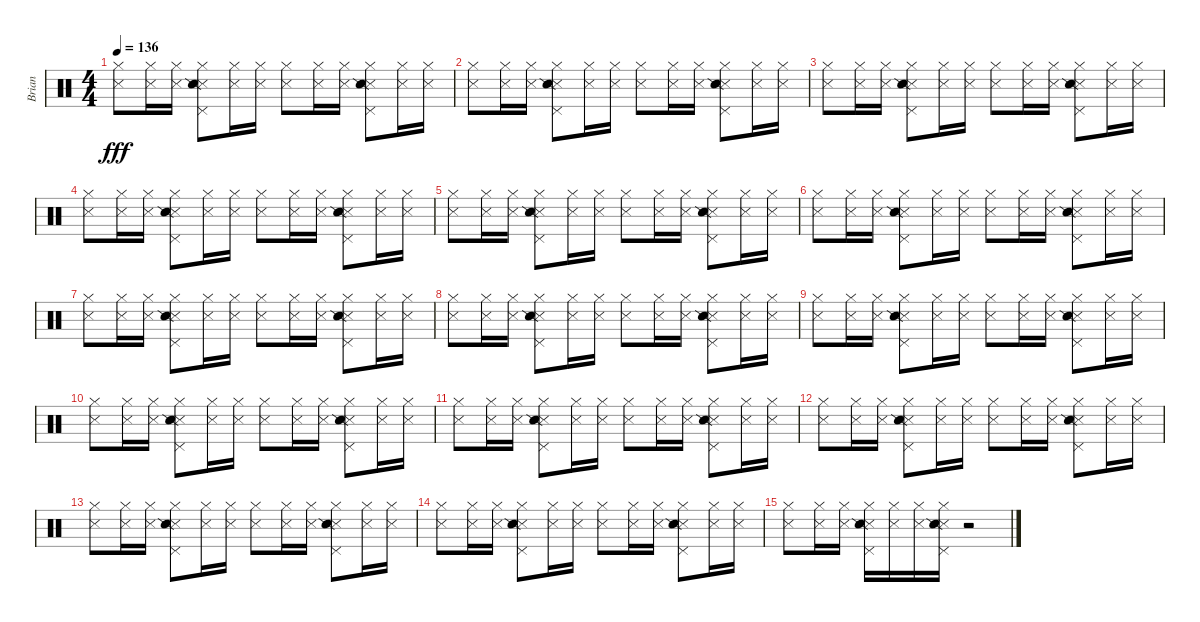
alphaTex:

\track ("Brian" "Brian") {instrument percussion}
\staff {score}
\articulation defaults
\ts (4 4)
\tempo 136
\clef neutral
\ks c
("Hi-Hat (closed)" "Metronome (hit)").8{dy fff} ("Hi-Hat (closed)" "Metronome (hit)").16 ("Hi-Hat (closed)" "Metronome (hit)").16 ("Pedal Hi-Hat (hit)" "Snare (side stick) 3" "Hi-Hat (closed)" "Snare (side stick) 2").8 ("Hi-Hat (closed)" "Metronome (hit)").16 ("Hi-Hat (closed)" "Metronome (hit)").16 ("Hi-Hat (closed)" "Metronome (hit)").8 ("Hi-Hat (closed)" "Metronome (hit)").16 ("Hi-Hat (closed)" "Metronome (hit)").16 ("Pedal Hi-Hat (hit)" "Snare (side stick) 3" "Hi-Hat (closed)" "Snare (side stick) 2").8 ("Hi-Hat (closed)" "Metronome (hit)").16 ("Hi-Hat (closed)" "Metronome (hit)").16 |
("Hi-Hat (closed)" "Metronome (hit)").8 ("Hi-Hat (closed)" "Metronome (hit)").16 ("Hi-Hat (closed)" "Metronome (hit)").16 ("Pedal Hi-Hat (hit)" "Snare (side stick) 3" "Hi-Hat (closed)" "Snare (side stick) 2").8 ("Hi-Hat (closed)" "Metronome (hit)").16 ("Hi-Hat (closed)" "Metronome (hit)").16 ("Hi-Hat (closed)" "Metronome (hit)").8 ("Hi-Hat (closed)" "Metronome (hit)").16 ("Hi-Hat (closed)" "Metronome (hit)").16 ("Pedal Hi-Hat (hit)" "Snare (side stick) 3" "Hi-Hat (closed)" "Snare (side stick) 2").8 ("Hi-Hat (closed)" "Metronome (hit)").16 ("Hi-Hat (closed)" "Metronome (hit)").16 |
("Hi-Hat (closed)" "Metronome (hit)").8 ("Hi-Hat (closed)" "Metronome (hit)").16 ("Hi-Hat (closed)" "Metronome (hit)").16 ("Pedal Hi-Hat (hit)" "Snare (side stick) 3" "Hi-Hat (closed)" "Snare (side stick) 2").8 ("Hi-Hat (closed)" "Metronome (hit)").16 ("Hi-Hat (closed)" "Metronome (hit)").16 ("Hi-Hat (closed)" "Metronome (hit)").8 ("Hi-Hat (closed)" "Metronome (hit)").16 ("Hi-Hat (closed)" "Metronome (hit)").16 ("Pedal Hi-Hat (hit)" "Snare (side stick) 3" "Hi-Hat (closed)" "Snare (side stick) 2").8 ("Hi-Hat (closed)" "Metronome (hit)").16 ("Hi-Hat (closed)" "Metronome (hit)").16 |
("Hi-Hat (closed)" "Metronome (hit)").8 ("Hi-Hat (closed)" "Metronome (hit)").16 ("Hi-Hat (closed)" "Metronome (hit)").16 ("Pedal Hi-Hat (hit)" "Snare (side stick) 3" "Hi-Hat (closed)" "Snare (side stick) 2").8 ("Hi-Hat (closed)" "Metronome (hit)").16 ("Hi-Hat (closed)" "Metronome (hit)").16 ("Hi-Hat (closed)" "Metronome (hit)").8 ("Hi-Hat (closed)" "Metronome (hit)").16 ("Hi-Hat (closed)" "Metronome (hit)").16 ("Pedal Hi-Hat (hit)" "Snare (side stick) 3" "Hi-Hat (closed)" "Snare (side stick) 2").8 ("Hi-Hat (closed)" "Metronome (hit)").16 ("Hi-Hat (closed)" "Metronome (hit)").16 |
("Hi-Hat (closed)" "Metronome (hit)").8 ("Hi-Hat (closed)" "Metronome (hit)").16 ("Hi-Hat (closed)" "Metronome (hit)").16 ("Pedal Hi-Hat (hit)" "Snare (side stick) 3" "Hi-Hat (closed)" "Snare (side stick) 2").8 ("Hi-Hat (closed)" "Metronome (hit)").16 ("Hi-Hat (closed)" "Metronome (hit)").16 ("Hi-Hat (closed)" "Metronome (hit)").8 ("Hi-Hat (closed)" "Metronome (hit)").16 ("Hi-Hat (closed)" "Metronome (hit)").16 ("Pedal Hi-Hat (hit)" "Snare (side stick) 3" "Hi-Hat (closed)" "Snare (side stick) 2").8 ("Hi-Hat (closed)" "Metronome (hit)").16 ("Hi-Hat (closed)" "Metronome (hit)").16 |
("Hi-Hat (closed)" "Metronome (hit)").8 ("Hi-Hat (closed)" "Metronome (hit)").16 ("Hi-Hat (closed)" "Metronome (hit)").16 ("Pedal Hi-Hat (hit)" "Snare (side stick) 3" "Hi-Hat (closed)" "Snare (side stick) 2").8 ("Hi-Hat (closed)" "Metronome (hit)").16 ("Hi-Hat (closed)" "Metronome (hit)").16 ("Hi-Hat (closed)" "Metronome (hit)").8 ("Hi-Hat (closed)" "Metronome (hit)").16 ("Hi-Hat (closed)" "Metronome (hit)").16 ("Pedal Hi-Hat (hit)" "Snare (side stick) 3" "Hi-Hat (closed)" "Snare (side stick) 2").8 ("Hi-Hat (closed)" "Metronome (hit)").16 ("Hi-Hat (closed)" "Metronome (hit)").16 |
("Hi-Hat (closed)" "Metronome (hit)").8 ("Hi-Hat (closed)" "Metronome (hit)").16 ("Hi-Hat (closed)" "Metronome (hit)").16 ("Pedal Hi-Hat (hit)" "Snare (side stick) 3" "Hi-Hat (closed)" "Snare (side stick) 2").8 ("Hi-Hat (closed)" "Metronome (hit)").16 ("Hi-Hat (closed)" "Metronome (hit)").16 ("Hi-Hat (closed)" "Metronome (hit)").8 ("Hi-Hat (closed)" "Metronome (hit)").16 ("Hi-Hat (closed)" "Metronome (hit)").16 ("Pedal Hi-Hat (hit)" "Snare (side stick) 3" "Hi-Hat (closed)" "Snare (side stick) 2").8 ("Hi-Hat (closed)" "Metronome (hit)").16 ("Hi-Hat (closed)" "Metronome (hit)").16 |
("Hi-Hat (closed)" "Metronome (hit)").8 ("Hi-Hat (closed)" "Metronome (hit)").16 ("Hi-Hat (closed)" "Metronome (hit)").16 ("Pedal Hi-Hat (hit)" "Snare (side stick) 3" "Hi-Hat (closed)" "Snare (side stick) 2").8 ("Hi-Hat (closed)" "Metronome (hit)").16 ("Hi-Hat (closed)" "Metronome (hit)").16 ("Hi-Hat (closed)" "Metronome (hit)").8 ("Hi-Hat (closed)" "Metronome (hit)").16 ("Hi-Hat (closed)" "Metronome (hit)").16 ("Pedal Hi-Hat (hit)" "Snare (side stick) 3" "Hi-Hat (closed)" "Snare (side stick) 2").8 ("Hi-Hat (closed)" "Metronome (hit)").16 ("Hi-Hat (closed)" "Metronome (hit)").16 |
("Hi-Hat (closed)" "Metronome (hit)").8 ("Hi-Hat (closed)" "Metronome (hit)").16 ("Hi-Hat (closed)" "Metronome (hit)").16 ("Pedal Hi-Hat (hit)" "Snare (side stick) 3" "Hi-Hat (closed)" "Snare (side stick) 2").8 ("Hi-Hat (closed)" "Metronome (hit)").16 ("Hi-Hat (closed)" "Metronome (hit)").16 ("Hi-Hat (closed)" "Metronome (hit)").8 ("Hi-Hat (closed)" "Metronome (hit)").16 ("Hi-Hat (closed)" "Metronome (hit)").16 ("Pedal Hi-Hat (hit)" "Snare (side stick) 3" "Hi-Hat (closed)" "Snare (side stick) 2").8 ("Hi-Hat (closed)" "Metronome (hit)").16 ("Hi-Hat (closed)" "Metronome (hit)").16 |
("Hi-Hat (closed)" "Metronome (hit)").8 ("Hi-Hat (closed)" "Metronome (hit)").16 ("Hi-Hat (closed)" "Metronome (hit)").16 ("Pedal Hi-Hat (hit)" "Snare (side stick) 3" "Hi-Hat (closed)" "Snare (side stick) 2").8 ("Hi-Hat (closed)" "Metronome (hit)").16 ("Hi-Hat (closed)" "Metronome (hit)").16 ("Hi-Hat (closed)" "Metronome (hit)").8 ("Hi-Hat (closed)" "Metronome (hit)").16 ("Hi-Hat (closed)" "Metronome (hit)").16 ("Pedal Hi-Hat (hit)" "Snare (side stick) 3" "Hi-Hat (closed)" "Snare (side stick) 2").8 ("Hi-Hat (closed)" "Metronome (hit)").16 ("Hi-Hat (closed)" "Metronome (hit)").16 |
("Hi-Hat (closed)" "Metronome (hit)").8 ("Hi-Hat (closed)" "Metronome (hit)").16 ("Hi-Hat (closed)" "Metronome (hit)").16 ("Pedal Hi-Hat (hit)" "Snare (side stick) 3" "Hi-Hat (closed)" "Snare (side stick) 2").8 ("Hi-Hat (closed)" "Metronome (hit)").16 ("Hi-Hat (closed)" "Metronome (hit)").16 ("Hi-Hat (closed)" "Metronome (hit)").8 ("Hi-Hat (closed)" "Metronome (hit)").16 ("Hi-Hat (closed)" "Metronome (hit)").16 ("Pedal Hi-Hat (hit)" "Snare (side stick) 3" "Hi-Hat (closed)" "Snare (side stick) 2").8 ("Hi-Hat (closed)" "Metronome (hit)").16 ("Hi-Hat (closed)" "Metronome (hit)").16 |
("Hi-Hat (closed)" "Metronome (hit)").8 ("Hi-Hat (closed)" "Metronome (hit)").16 ("Hi-Hat (closed)" "Metronome (hit)").16 ("Pedal Hi-Hat (hit)" "Snare (side stick) 3" "Hi-Hat (closed)" "Snare (side stick) 2").8 ("Hi-Hat (closed)" "Metronome (hit)").16 ("Hi-Hat (closed)" "Metronome (hit)").16 ("Hi-Hat (closed)" "Metronome (hit)").8 ("Hi-Hat (closed)" "Metronome (hit)").16 ("Hi-Hat (closed)" "Metronome (hit)").16 ("Pedal Hi-Hat (hit)" "Snare (side stick) 3" "Hi-Hat (closed)" "Snare (side stick) 2").8 ("Hi-Hat (closed)" "Metronome (hit)").16 ("Hi-Hat (closed)" "Metronome (hit)").16 |
("Hi-Hat (closed)" "Metronome (hit)").8 ("Hi-Hat (closed)" "Metronome (hit)").16 ("Hi-Hat (closed)" "Metronome (hit)").16 ("Pedal Hi-Hat (hit)" "Snare (side stick) 3" "Hi-Hat (closed)" "Snare (side stick) 2").8 ("Hi-Hat (closed)" "Metronome (hit)").16 ("Hi-Hat (closed)" "Metronome (hit)").16 ("Hi-Hat (closed)" "Metronome (hit)").8 ("Hi-Hat (closed)" "Metronome (hit)").16 ("Hi-Hat (closed)" "Metronome (hit)").16 ("Pedal Hi-Hat (hit)" "Snare (side stick) 3" "Hi-Hat (closed)" "Snare (side stick) 2").8 ("Hi-Hat (closed)" "Metronome (hit)").16 ("Hi-Hat (closed)" "Metronome (hit)").16 |
("Hi-Hat (closed)" "Metronome (hit)").8 ("Hi-Hat (closed)" "Metronome (hit)").16 ("Hi-Hat (closed)" "Metronome (hit)").16 ("Pedal Hi-Hat (hit)" "Snare (side stick) 3" "Hi-Hat (closed)" "Snare (side stick) 2").8 ("Hi-Hat (closed)" "Metronome (hit)").16 ("Hi-Hat (closed)" "Metronome (hit)").16 ("Hi-Hat (closed)" "Metronome (hit)").8 ("Hi-Hat (closed)" "Metronome (hit)").16 ("Hi-Hat (closed)" "Metronome (hit)").16 ("Pedal Hi-Hat (hit)" "Snare (side stick) 3" "Hi-Hat (closed)" "Snare (side stick) 2").8 ("Hi-Hat (closed)" "Metronome (hit)").16 ("Hi-Hat (closed)" "Metronome (hit)").16 |
("Hi-Hat (closed)" "Metronome (hit)").8 ("Hi-Hat (closed)" "Metronome (hit)").16 ("Hi-Hat (closed)" "Metronome (hit)").16 ("Pedal Hi-Hat (hit)" "Snare (side stick) 3" "Hi-Hat (closed)" "Snare (side stick) 2").16 ("Hi-Hat (closed)" "Metronome (hit)").16 ("Hi-Hat (closed)" "Metronome (hit)").16 ("Pedal Hi-Hat (hit)" "Snare (side stick) 3" "Hi-Hat (closed)" "Snare (side stick) 2").16 r.2
